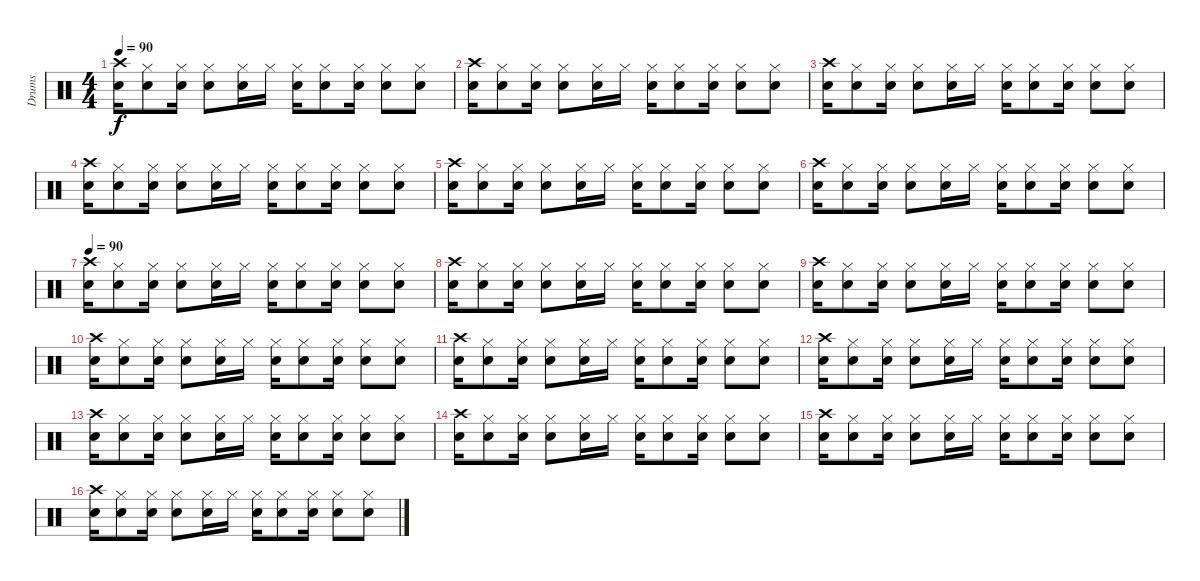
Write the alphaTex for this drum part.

\track ("Drums" "Drums") {instrument percussion}
\staff {score}
\articulation defaults
\ts (4 4)
\tempo 90
\clef neutral
\ks c
("Crash high (hit)" "Snare (hit) 2").16{dy f} ("Hi-Hat (closed)" "Snare (hit) 2").8 ("Hi-Hat (closed)" "Snare (hit) 2").16 ("Hi-Hat (closed)" "Snare (hit) 2").8 ("Hi-Hat (closed)" "Snare (hit) 2").16 "Hi-Hat (closed)".16 ("Hi-Hat (closed)" "Snare (hit) 2").16 ("Hi-Hat (closed)" "Snare (hit) 2").8 ("Hi-Hat (closed)" "Snare (hit) 2").16 ("Hi-Hat (closed)" "Snare (hit) 2").8 ("Hi-Hat (closed)" "Snare (hit) 2").8 |
("Crash high (hit)" "Snare (hit) 2").16 ("Hi-Hat (closed)" "Snare (hit) 2").8 ("Hi-Hat (closed)" "Snare (hit) 2").16 ("Hi-Hat (closed)" "Snare (hit) 2").8 ("Hi-Hat (closed)" "Snare (hit) 2").16 "Hi-Hat (closed)".16 ("Hi-Hat (closed)" "Snare (hit) 2").16 ("Hi-Hat (closed)" "Snare (hit) 2").8 ("Hi-Hat (closed)" "Snare (hit) 2").16 ("Hi-Hat (closed)" "Snare (hit) 2").8 ("Hi-Hat (closed)" "Snare (hit) 2").8 |
("Crash high (hit)" "Snare (hit) 2").16 ("Hi-Hat (closed)" "Snare (hit) 2").8 ("Hi-Hat (closed)" "Snare (hit) 2").16 ("Hi-Hat (closed)" "Snare (hit) 2").8 ("Hi-Hat (closed)" "Snare (hit) 2").16 "Hi-Hat (closed)".16 ("Hi-Hat (closed)" "Snare (hit) 2").16 ("Hi-Hat (closed)" "Snare (hit) 2").8 ("Hi-Hat (closed)" "Snare (hit) 2").16 ("Hi-Hat (closed)" "Snare (hit) 2").8 ("Hi-Hat (closed)" "Snare (hit) 2").8 |
("Crash high (hit)" "Snare (hit) 2").16 ("Hi-Hat (closed)" "Snare (hit) 2").8 ("Hi-Hat (closed)" "Snare (hit) 2").16 ("Hi-Hat (closed)" "Snare (hit) 2").8 ("Hi-Hat (closed)" "Snare (hit) 2").16 "Hi-Hat (closed)".16 ("Hi-Hat (closed)" "Snare (hit) 2").16 ("Hi-Hat (closed)" "Snare (hit) 2").8 ("Hi-Hat (closed)" "Snare (hit) 2").16 ("Hi-Hat (closed)" "Snare (hit) 2").8 ("Hi-Hat (closed)" "Snare (hit) 2").8 |
("Crash high (hit)" "Snare (hit) 2").16 ("Hi-Hat (closed)" "Snare (hit) 2").8 ("Hi-Hat (closed)" "Snare (hit) 2").16 ("Hi-Hat (closed)" "Snare (hit) 2").8 ("Hi-Hat (closed)" "Snare (hit) 2").16 "Hi-Hat (closed)".16 ("Hi-Hat (closed)" "Snare (hit) 2").16 ("Hi-Hat (closed)" "Snare (hit) 2").8 ("Hi-Hat (closed)" "Snare (hit) 2").16 ("Hi-Hat (closed)" "Snare (hit) 2").8 ("Hi-Hat (closed)" "Snare (hit) 2").8 |
("Crash high (hit)" "Snare (hit) 2").16 ("Hi-Hat (closed)" "Snare (hit) 2").8 ("Hi-Hat (closed)" "Snare (hit) 2").16 ("Hi-Hat (closed)" "Snare (hit) 2").8 ("Hi-Hat (closed)" "Snare (hit) 2").16 "Hi-Hat (closed)".16 ("Hi-Hat (closed)" "Snare (hit) 2").16 ("Hi-Hat (closed)" "Snare (hit) 2").8 ("Hi-Hat (closed)" "Snare (hit) 2").16 ("Hi-Hat (closed)" "Snare (hit) 2").8 ("Hi-Hat (closed)" "Snare (hit) 2").8 |
\tempo 90
("Crash high (hit)" "Snare (hit) 2").16 ("Hi-Hat (closed)" "Snare (hit) 2").8 ("Hi-Hat (closed)" "Snare (hit) 2").16 ("Hi-Hat (closed)" "Snare (hit) 2").8 ("Hi-Hat (closed)" "Snare (hit) 2").16 "Hi-Hat (closed)".16 ("Hi-Hat (closed)" "Snare (hit) 2").16 ("Hi-Hat (closed)" "Snare (hit) 2").8 ("Hi-Hat (closed)" "Snare (hit) 2").16 ("Hi-Hat (closed)" "Snare (hit) 2").8 ("Hi-Hat (closed)" "Snare (hit) 2").8 |
("Crash high (hit)" "Snare (hit) 2").16 ("Hi-Hat (closed)" "Snare (hit) 2").8 ("Hi-Hat (closed)" "Snare (hit) 2").16 ("Hi-Hat (closed)" "Snare (hit) 2").8 ("Hi-Hat (closed)" "Snare (hit) 2").16 "Hi-Hat (closed)".16 ("Hi-Hat (closed)" "Snare (hit) 2").16 ("Hi-Hat (closed)" "Snare (hit) 2").8 ("Hi-Hat (closed)" "Snare (hit) 2").16 ("Hi-Hat (closed)" "Snare (hit) 2").8 ("Hi-Hat (closed)" "Snare (hit) 2").8 |
("Crash high (hit)" "Snare (hit) 2").16 ("Hi-Hat (closed)" "Snare (hit) 2").8 ("Hi-Hat (closed)" "Snare (hit) 2").16 ("Hi-Hat (closed)" "Snare (hit) 2").8 ("Hi-Hat (closed)" "Snare (hit) 2").16 "Hi-Hat (closed)".16 ("Hi-Hat (closed)" "Snare (hit) 2").16 ("Hi-Hat (closed)" "Snare (hit) 2").8 ("Hi-Hat (closed)" "Snare (hit) 2").16 ("Hi-Hat (closed)" "Snare (hit) 2").8 ("Hi-Hat (closed)" "Snare (hit) 2").8 |
("Crash high (hit)" "Snare (hit) 2").16 ("Hi-Hat (closed)" "Snare (hit) 2").8 ("Hi-Hat (closed)" "Snare (hit) 2").16 ("Hi-Hat (closed)" "Snare (hit) 2").8 ("Hi-Hat (closed)" "Snare (hit) 2").16 "Hi-Hat (closed)".16 ("Hi-Hat (closed)" "Snare (hit) 2").16 ("Hi-Hat (closed)" "Snare (hit) 2").8 ("Hi-Hat (closed)" "Snare (hit) 2").16 ("Hi-Hat (closed)" "Snare (hit) 2").8 ("Hi-Hat (closed)" "Snare (hit) 2").8 |
("Crash high (hit)" "Snare (hit) 2").16 ("Hi-Hat (closed)" "Snare (hit) 2").8 ("Hi-Hat (closed)" "Snare (hit) 2").16 ("Hi-Hat (closed)" "Snare (hit) 2").8 ("Hi-Hat (closed)" "Snare (hit) 2").16 "Hi-Hat (closed)".16 ("Hi-Hat (closed)" "Snare (hit) 2").16 ("Hi-Hat (closed)" "Snare (hit) 2").8 ("Hi-Hat (closed)" "Snare (hit) 2").16 ("Hi-Hat (closed)" "Snare (hit) 2").8 ("Hi-Hat (closed)" "Snare (hit) 2").8 |
("Crash high (hit)" "Snare (hit) 2").16 ("Hi-Hat (closed)" "Snare (hit) 2").8 ("Hi-Hat (closed)" "Snare (hit) 2").16 ("Hi-Hat (closed)" "Snare (hit) 2").8 ("Hi-Hat (closed)" "Snare (hit) 2").16 "Hi-Hat (closed)".16 ("Hi-Hat (closed)" "Snare (hit) 2").16 ("Hi-Hat (closed)" "Snare (hit) 2").8 ("Hi-Hat (closed)" "Snare (hit) 2").16 ("Hi-Hat (closed)" "Snare (hit) 2").8 ("Hi-Hat (closed)" "Snare (hit) 2").8 |
("Crash high (hit)" "Snare (hit) 2").16 ("Hi-Hat (closed)" "Snare (hit) 2").8 ("Hi-Hat (closed)" "Snare (hit) 2").16 ("Hi-Hat (closed)" "Snare (hit) 2").8 ("Hi-Hat (closed)" "Snare (hit) 2").16 "Hi-Hat (closed)".16 ("Hi-Hat (closed)" "Snare (hit) 2").16 ("Hi-Hat (closed)" "Snare (hit) 2").8 ("Hi-Hat (closed)" "Snare (hit) 2").16 ("Hi-Hat (closed)" "Snare (hit) 2").8 ("Hi-Hat (closed)" "Snare (hit) 2").8 |
("Crash high (hit)" "Snare (hit) 2").16 ("Hi-Hat (closed)" "Snare (hit) 2").8 ("Hi-Hat (closed)" "Snare (hit) 2").16 ("Hi-Hat (closed)" "Snare (hit) 2").8 ("Hi-Hat (closed)" "Snare (hit) 2").16 "Hi-Hat (closed)".16 ("Hi-Hat (closed)" "Snare (hit) 2").16 ("Hi-Hat (closed)" "Snare (hit) 2").8 ("Hi-Hat (closed)" "Snare (hit) 2").16 ("Hi-Hat (closed)" "Snare (hit) 2").8 ("Hi-Hat (closed)" "Snare (hit) 2").8 |
("Crash high (hit)" "Snare (hit) 2").16 ("Hi-Hat (closed)" "Snare (hit) 2").8 ("Hi-Hat (closed)" "Snare (hit) 2").16 ("Hi-Hat (closed)" "Snare (hit) 2").8 ("Hi-Hat (closed)" "Snare (hit) 2").16 "Hi-Hat (closed)".16 ("Hi-Hat (closed)" "Snare (hit) 2").16 ("Hi-Hat (closed)" "Snare (hit) 2").8 ("Hi-Hat (closed)" "Snare (hit) 2").16 ("Hi-Hat (closed)" "Snare (hit) 2").8 ("Hi-Hat (closed)" "Snare (hit) 2").8 |
("Crash high (hit)" "Snare (hit) 2").16 ("Hi-Hat (closed)" "Snare (hit) 2").8 ("Hi-Hat (closed)" "Snare (hit) 2").16 ("Hi-Hat (closed)" "Snare (hit) 2").8 ("Hi-Hat (closed)" "Snare (hit) 2").16 "Hi-Hat (closed)".16 ("Hi-Hat (closed)" "Snare (hit) 2").16 ("Hi-Hat (closed)" "Snare (hit) 2").8 ("Hi-Hat (closed)" "Snare (hit) 2").16 ("Hi-Hat (closed)" "Snare (hit) 2").8 ("Hi-Hat (closed)" "Snare (hit) 2").8
